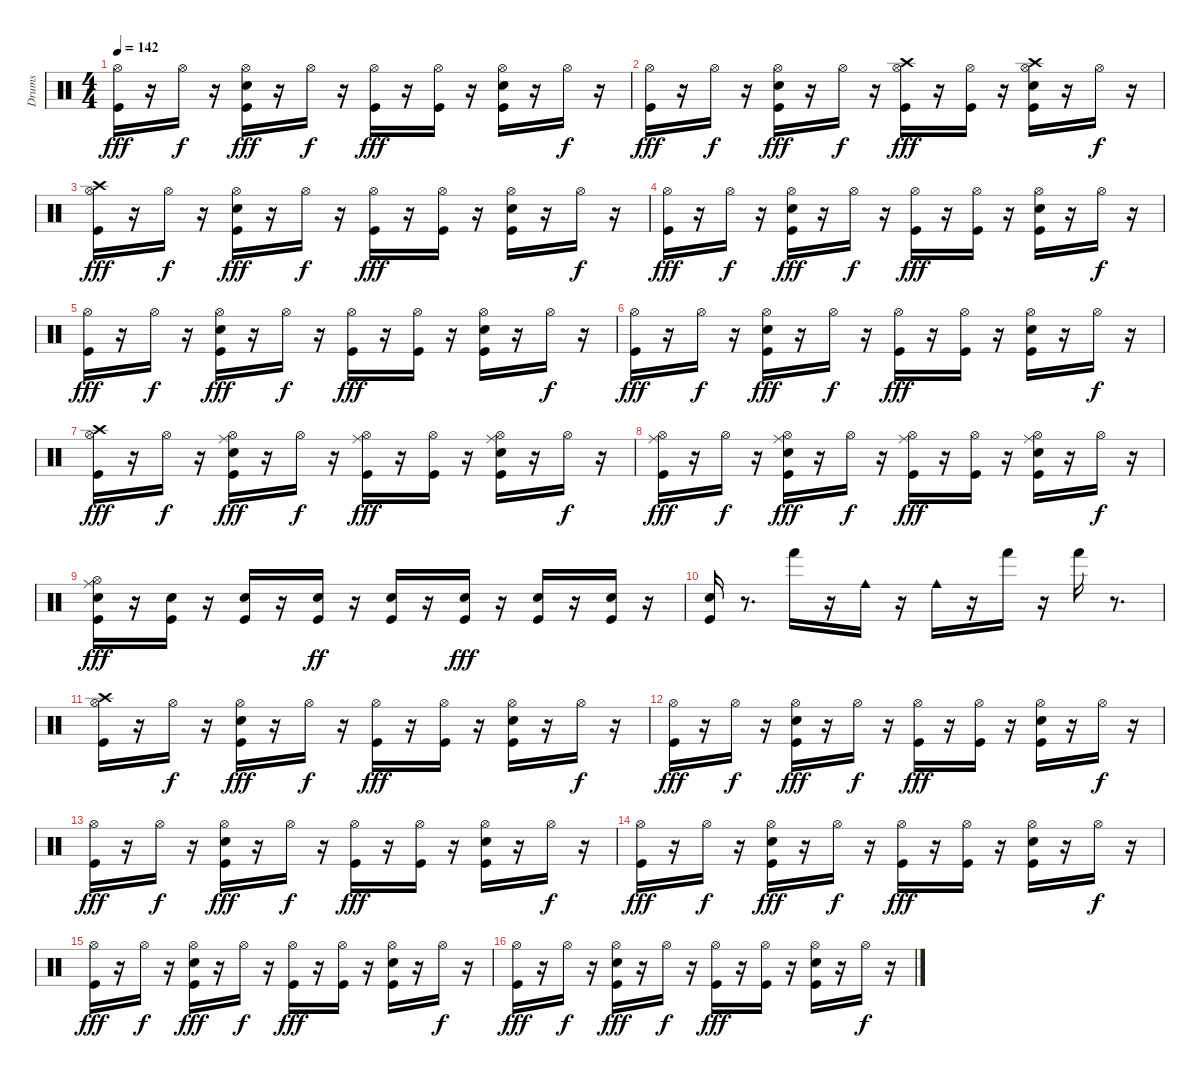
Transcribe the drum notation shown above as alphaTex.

\track ("Drums" "Drums") {instrument percussion}
\staff {score}
\articulation defaults
\ts (4 4)
\tempo 142
\clef neutral
\ks c
("Hi-Hat (open)" "Kick (hit)").16{dy fff} r.16 "Hi-Hat (open)".16{dy f} r.16 ("Snare (hit) 2" "Kick (hit)" "Hi-Hat (open)").16{dy fff} r.16 "Hi-Hat (open)".16{dy f} r.16 ("Kick (hit)" "Hi-Hat (open)").16{dy fff} r.16 ("Kick (hit)" "Hi-Hat (open)").16 r.16 ("Kick (hit)" "Snare (hit) 2" "Hi-Hat (open)").16 r.16 "Hi-Hat (open)".16{dy f} r.16 |
("Hi-Hat (open)" "Kick (hit)").16{dy fff} r.16 "Hi-Hat (open)".16{dy f} r.16 ("Snare (hit) 2" "Kick (hit)" "Hi-Hat (open)").16{dy fff} r.16 "Hi-Hat (open)".16{dy f} r.16 ("Kick (hit)" "Hi-Hat (open)" "Crash high (hit)").16{dy fff} r.16 ("Kick (hit)" "Hi-Hat (open)").16 r.16 ("Kick (hit)" "Snare (hit) 2" "Hi-Hat (open)" "Crash high (hit)").16 r.16 "Hi-Hat (open)".16{dy f} r.16 |
("Hi-Hat (open)" "Kick (hit)" "Crash high (hit)").16{dy fff} r.16 "Hi-Hat (open)".16{dy f} r.16 ("Snare (hit) 2" "Kick (hit)" "Hi-Hat (open)").16{dy fff} r.16 "Hi-Hat (open)".16{dy f} r.16 ("Kick (hit)" "Hi-Hat (open)").16{dy fff} r.16 ("Kick (hit)" "Hi-Hat (open)").16 r.16 ("Kick (hit)" "Snare (hit) 2" "Hi-Hat (open)").16 r.16 "Hi-Hat (open)".16{dy f} r.16 |
("Hi-Hat (open)" "Kick (hit)").16{dy fff} r.16 "Hi-Hat (open)".16{dy f} r.16 ("Snare (hit) 2" "Kick (hit)" "Hi-Hat (open)").16{dy fff} r.16 "Hi-Hat (open)".16{dy f} r.16 ("Kick (hit)" "Hi-Hat (open)").16{dy fff} r.16 ("Kick (hit)" "Hi-Hat (open)").16 r.16 ("Kick (hit)" "Snare (hit) 2" "Hi-Hat (open)").16 r.16 "Hi-Hat (open)".16{dy f} r.16 |
("Hi-Hat (open)" "Kick (hit)").16{dy fff} r.16 "Hi-Hat (open)".16{dy f} r.16 ("Snare (hit) 2" "Kick (hit)" "Hi-Hat (open)").16{dy fff} r.16 "Hi-Hat (open)".16{dy f} r.16 ("Kick (hit)" "Hi-Hat (open)").16{dy fff} r.16 ("Kick (hit)" "Hi-Hat (open)").16 r.16 ("Kick (hit)" "Snare (hit) 2" "Hi-Hat (open)").16 r.16 "Hi-Hat (open)".16{dy f} r.16 |
("Hi-Hat (open)" "Kick (hit)").16{dy fff} r.16 "Hi-Hat (open)".16{dy f} r.16 ("Snare (hit) 2" "Kick (hit)" "Hi-Hat (open)").16{dy fff} r.16 "Hi-Hat (open)".16{dy f} r.16 ("Kick (hit)" "Hi-Hat (open)").16{dy fff} r.16 ("Kick (hit)" "Hi-Hat (open)").16 r.16 ("Kick (hit)" "Snare (hit) 2" "Hi-Hat (open)").16 r.16 "Hi-Hat (open)".16{dy f} r.16 |
("Hi-Hat (open)" "Kick (hit)" "Crash high (hit)").16{dy fff} r.16 "Hi-Hat (open)".16{dy f} r.16 ("Snare (hit) 2" "Kick (hit)" "Hi-Hat (open)" "Ride (middle)").16{dy fff} r.16 "Hi-Hat (open)".16{dy f} r.16 ("Kick (hit)" "Hi-Hat (open)" "Ride (middle)").16{dy fff} r.16 ("Kick (hit)" "Hi-Hat (open)").16 r.16 ("Kick (hit)" "Snare (hit) 2" "Hi-Hat (open)" "Ride (middle)").16 r.16 "Hi-Hat (open)".16{dy f} r.16 |
("Hi-Hat (open)" "Kick (hit)" "Ride (middle)").16{dy fff} r.16 "Hi-Hat (open)".16{dy f} r.16 ("Snare (hit) 2" "Kick (hit)" "Hi-Hat (open)" "Ride (middle)").16{dy fff} r.16 "Hi-Hat (open)".16{dy f} r.16 ("Kick (hit)" "Hi-Hat (open)" "Ride (middle)").16{dy fff} r.16 ("Kick (hit)" "Hi-Hat (open)").16 r.16 ("Kick (hit)" "Snare (hit) 2" "Hi-Hat (open)" "Ride (middle)").16 r.16 "Hi-Hat (open)".16{dy f} r.16 |
("Hi-Hat (open)" "Kick (hit)" "Snare (hit) 2" "Ride (middle)").16{dy fff} r.16 ("Kick (hit)" "Snare (hit) 2").16 r.16 ("Kick (hit)" "Snare (hit) 2").16 r.16 ("Kick (hit)" "Snare (hit) 2").16{dy ff} r.16 ("Kick (hit)" "Snare (hit) 2").16 r.16 ("Kick (hit)" "Snare (hit) 2").16{dy fff} r.16 ("Kick (hit)" "Snare (hit) 2").16 r.16 ("Kick (hit)" "Snare (hit) 2").16 r.16 |
("Kick (hit)" "Snare (hit) 2").16 r.8{d} "Hand (hit)".16 r.16 "Cowbell medium (hit)".16 r.16 "Cowbell medium (hit)".16 r.16 "Hand (hit)".16 r.16 "Hand (hit)".16 r.8{d} |
("Kick (hit)" "Hi-Hat (open)" "Crash high (hit)").16 r.16 "Hi-Hat (open)".16{dy f} r.16 ("Snare (hit) 2" "Kick (hit)" "Hi-Hat (open)").16{dy fff} r.16 "Hi-Hat (open)".16{dy f} r.16 ("Kick (hit)" "Hi-Hat (open)").16{dy fff} r.16 ("Kick (hit)" "Hi-Hat (open)").16 r.16 ("Kick (hit)" "Snare (hit) 2" "Hi-Hat (open)").16 r.16 "Hi-Hat (open)".16{dy f} r.16 |
("Kick (hit)" "Hi-Hat (open)").16{dy fff} r.16 "Hi-Hat (open)".16{dy f} r.16 ("Snare (hit) 2" "Kick (hit)" "Hi-Hat (open)").16{dy fff} r.16 "Hi-Hat (open)".16{dy f} r.16 ("Kick (hit)" "Hi-Hat (open)").16{dy fff} r.16 ("Kick (hit)" "Hi-Hat (open)").16 r.16 ("Kick (hit)" "Snare (hit) 2" "Hi-Hat (open)").16 r.16 "Hi-Hat (open)".16{dy f} r.16 |
("Kick (hit)" "Hi-Hat (open)").16{dy fff} r.16 "Hi-Hat (open)".16{dy f} r.16 ("Snare (hit) 2" "Kick (hit)" "Hi-Hat (open)").16{dy fff} r.16 "Hi-Hat (open)".16{dy f} r.16 ("Kick (hit)" "Hi-Hat (open)").16{dy fff} r.16 ("Kick (hit)" "Hi-Hat (open)").16 r.16 ("Kick (hit)" "Snare (hit) 2" "Hi-Hat (open)").16 r.16 "Hi-Hat (open)".16{dy f} r.16 |
("Kick (hit)" "Hi-Hat (open)").16{dy fff} r.16 "Hi-Hat (open)".16{dy f} r.16 ("Snare (hit) 2" "Kick (hit)" "Hi-Hat (open)").16{dy fff} r.16 "Hi-Hat (open)".16{dy f} r.16 ("Kick (hit)" "Hi-Hat (open)").16{dy fff} r.16 ("Kick (hit)" "Hi-Hat (open)").16 r.16 ("Kick (hit)" "Snare (hit) 2" "Hi-Hat (open)").16 r.16 "Hi-Hat (open)".16{dy f} r.16 |
("Kick (hit)" "Hi-Hat (open)").16{dy fff} r.16 "Hi-Hat (open)".16{dy f} r.16 ("Snare (hit) 2" "Kick (hit)" "Hi-Hat (open)").16{dy fff} r.16 "Hi-Hat (open)".16{dy f} r.16 ("Kick (hit)" "Hi-Hat (open)").16{dy fff} r.16 ("Kick (hit)" "Hi-Hat (open)").16 r.16 ("Kick (hit)" "Snare (hit) 2" "Hi-Hat (open)").16 r.16 "Hi-Hat (open)".16{dy f} r.16 |
("Kick (hit)" "Hi-Hat (open)").16{dy fff} r.16 "Hi-Hat (open)".16{dy f} r.16 ("Snare (hit) 2" "Kick (hit)" "Hi-Hat (open)").16{dy fff} r.16 "Hi-Hat (open)".16{dy f} r.16 ("Kick (hit)" "Hi-Hat (open)").16{dy fff} r.16 ("Kick (hit)" "Hi-Hat (open)").16 r.16 ("Kick (hit)" "Snare (hit) 2" "Hi-Hat (open)").16 r.16 "Hi-Hat (open)".16{dy f} r.16
